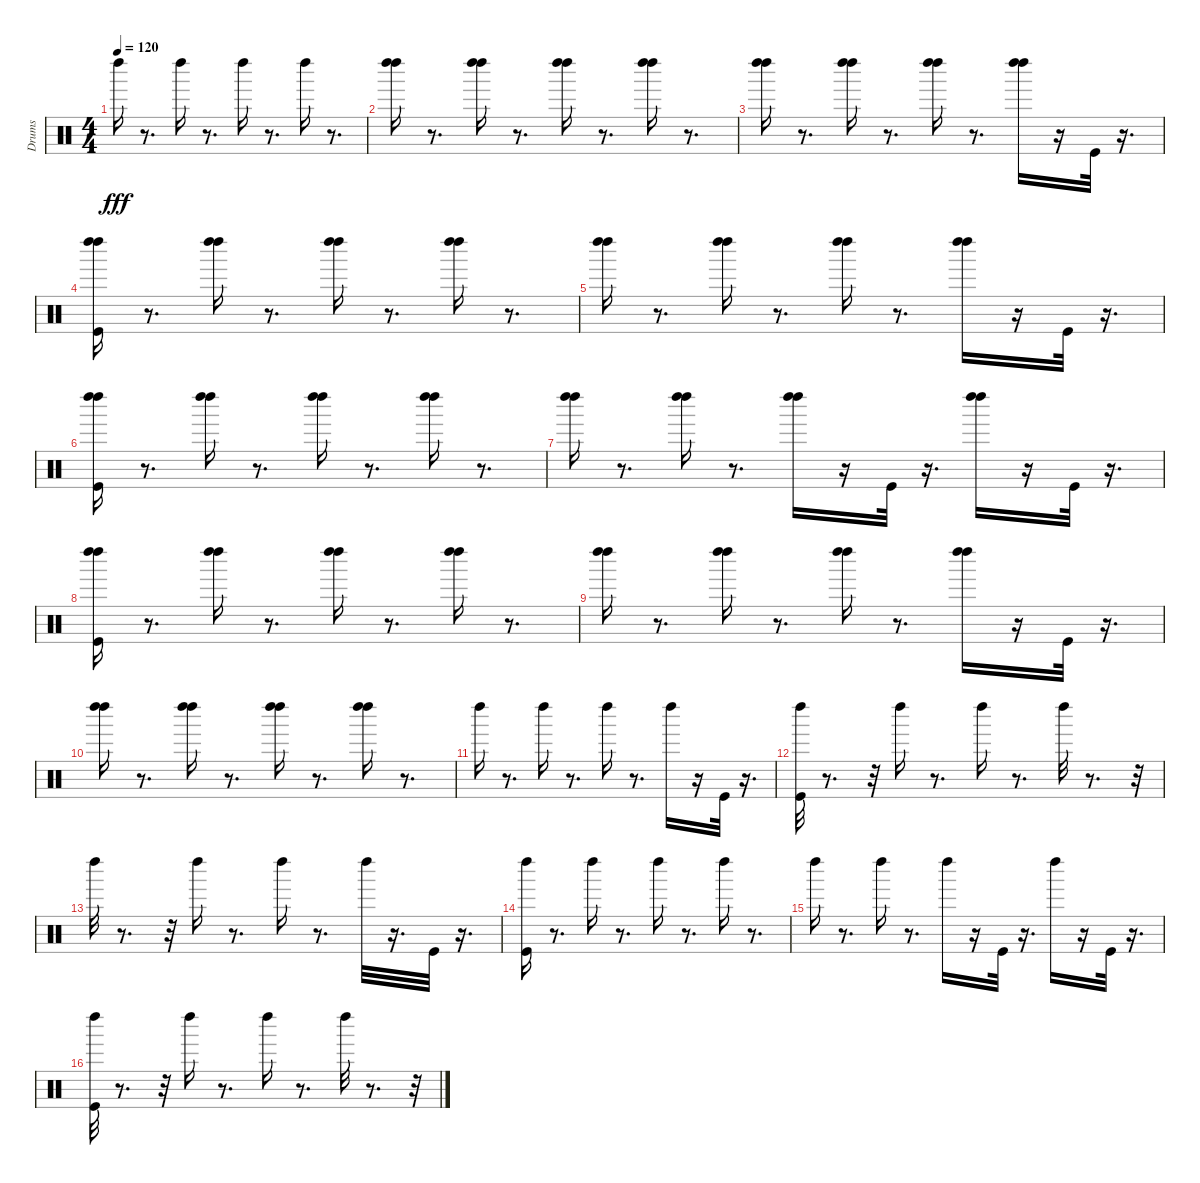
\track ("Drums" "Drums") {instrument percussion}
\staff {score}
\articulation defaults
\ts (4 4)
\tempo 120
\clef neutral
\ks c "Left Maraca (hit)".16{dy fff}
r.8{d} "Left Maraca (hit)".16 r.8{d} "Left Maraca (hit)".16 r.8{d} "Left Maraca (hit)".16 r.8{d} |
("Left Maraca (hit)" "Left Maraca (hit)").16 r.8{d} ("Left Maraca (hit)" "Left Maraca (hit)").16 r.8{d} ("Left Maraca (hit)" "Left Maraca (hit)").16 r.8{d} ("Left Maraca (hit)" "Left Maraca (hit)").16 r.8{d} |
("Left Maraca (hit)" "Left Maraca (hit)").16 r.8{d} ("Left Maraca (hit)" "Left Maraca (hit)").16 r.8{d} ("Left Maraca (hit)" "Left Maraca (hit)").16 r.8{d} ("Left Maraca (hit)" "Left Maraca (hit)").16 r.16 "Kick (hit)".32 r.16{d} |
("Kick (hit)" "Left Maraca (hit)" "Left Maraca (hit)").16 r.8{d} ("Left Maraca (hit)" "Left Maraca (hit)").16 r.8{d} ("Left Maraca (hit)" "Left Maraca (hit)").16 r.8{d} ("Left Maraca (hit)" "Left Maraca (hit)").16 r.8{d} |
("Left Maraca (hit)" "Left Maraca (hit)").16 r.8{d} ("Left Maraca (hit)" "Left Maraca (hit)").16 r.8{d} ("Left Maraca (hit)" "Left Maraca (hit)").16 r.8{d} ("Left Maraca (hit)" "Left Maraca (hit)").16 r.16 "Kick (hit)".32 r.16{d} |
("Kick (hit)" "Left Maraca (hit)" "Left Maraca (hit)").16 r.8{d} ("Left Maraca (hit)" "Left Maraca (hit)").16 r.8{d} ("Left Maraca (hit)" "Left Maraca (hit)").16 r.8{d} ("Left Maraca (hit)" "Left Maraca (hit)").16 r.8{d} |
("Left Maraca (hit)" "Left Maraca (hit)").16 r.8{d} ("Left Maraca (hit)" "Left Maraca (hit)").16 r.8{d} ("Left Maraca (hit)" "Left Maraca (hit)").16 r.16 "Kick (hit)".32 r.16{d} ("Left Maraca (hit)" "Left Maraca (hit)").16 r.16 "Kick (hit)".32 r.16{d} |
("Kick (hit)" "Left Maraca (hit)" "Left Maraca (hit)").16 r.8{d} ("Left Maraca (hit)" "Left Maraca (hit)").16 r.8{d} ("Left Maraca (hit)" "Left Maraca (hit)").16 r.8{d} ("Left Maraca (hit)" "Left Maraca (hit)").16 r.8{d} |
("Left Maraca (hit)" "Left Maraca (hit)").16 r.8{d} ("Left Maraca (hit)" "Left Maraca (hit)").16 r.8{d} ("Left Maraca (hit)" "Left Maraca (hit)").16 r.8{d} ("Left Maraca (hit)" "Left Maraca (hit)").16 r.16 "Kick (hit)".32 r.16{d} |
("Left Maraca (hit)" "Left Maraca (hit)").16 r.8{d} ("Left Maraca (hit)" "Left Maraca (hit)").16 r.8{d} ("Left Maraca (hit)" "Left Maraca (hit)").16 r.8{d} ("Left Maraca (hit)" "Left Maraca (hit)").16 r.8{d} |
"Left Maraca (hit)".16 r.8{d} "Left Maraca (hit)".16 r.8{d} "Left Maraca (hit)".16 r.8{d} "Left Maraca (hit)".16 r.16 "Kick (hit)".32 r.16{d} |
("Kick (hit)" "Left Maraca (hit)").32 r.8{d} r.32 "Left Maraca (hit)".16 r.8{d} "Left Maraca (hit)".16 r.8{d} "Left Maraca (hit)".32 r.8{d} r.32 |
"Left Maraca (hit)".32 r.8{d} r.32 "Left Maraca (hit)".16 r.8{d} "Left Maraca (hit)".16 r.8{d} "Left Maraca (hit)".32 r.16{d} "Kick (hit)".32 r.16{d} |
("Kick (hit)" "Left Maraca (hit)").16 r.8{d} "Left Maraca (hit)".16 r.8{d} "Left Maraca (hit)".16 r.8{d} "Left Maraca (hit)".16 r.8{d} |
"Left Maraca (hit)".16 r.8{d} "Left Maraca (hit)".16 r.8{d} "Left Maraca (hit)".16 r.16 "Kick (hit)".32 r.16{d} "Left Maraca (hit)".16 r.16 "Kick (hit)".32 r.16{d} |
("Kick (hit)" "Left Maraca (hit)").32 r.8{d} r.32 "Left Maraca (hit)".16 r.8{d} "Left Maraca (hit)".16 r.8{d} "Left Maraca (hit)".32 r.8{d} r.32
